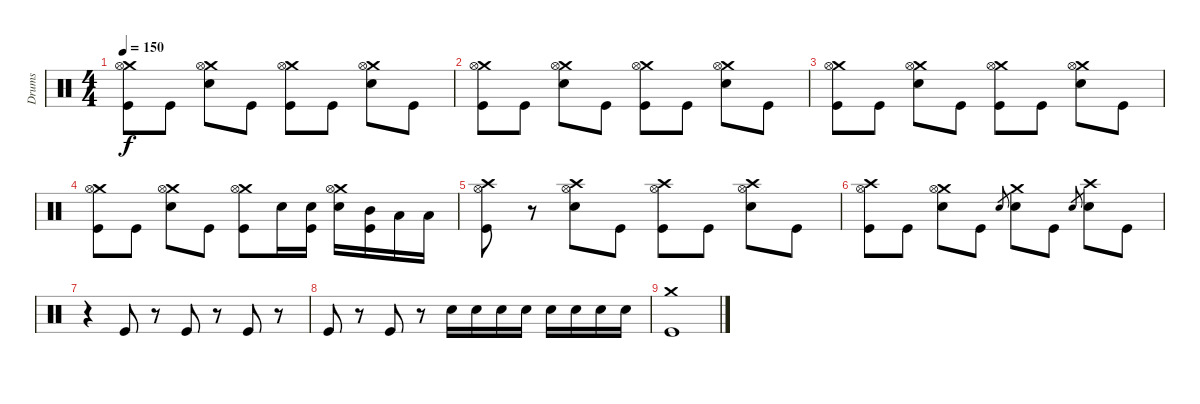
\track ("Drums" "Drums") {instrument percussion}
\staff {score}
\articulation defaults
\ts (4 4)
\tempo 150
\clef neutral
\ks c
("Crash medium (hit)" "Hi-Hat (open)" "Kick (hit)").8{dy f} "Kick (hit)".8 ("Crash medium (hit)" "Hi-Hat (open)" "Snare (hit) 2").8 "Kick (hit)".8 ("Crash medium (hit)" "Hi-Hat (open)" "Kick (hit)").8 "Kick (hit)".8 ("Crash medium (hit)" "Hi-Hat (open)" "Snare (hit) 2").8 "Kick (hit)".8 |
("Crash medium (hit)" "Hi-Hat (open)" "Kick (hit)").8 "Kick (hit)".8 ("Crash medium (hit)" "Hi-Hat (open)" "Snare (hit) 2").8 "Kick (hit)".8 ("Crash medium (hit)" "Hi-Hat (open)" "Kick (hit)").8 "Kick (hit)".8 ("Crash medium (hit)" "Hi-Hat (open)" "Snare (hit) 2").8 "Kick (hit)".8 |
("Crash medium (hit)" "Hi-Hat (open)" "Kick (hit)").8 "Kick (hit)".8 ("Crash medium (hit)" "Hi-Hat (open)" "Snare (hit) 2").8 "Kick (hit)".8 ("Crash medium (hit)" "Hi-Hat (open)" "Kick (hit)").8 "Kick (hit)".8 ("Crash medium (hit)" "Hi-Hat (open)" "Snare (hit) 2").8 "Kick (hit)".8 |
("Crash medium (hit)" "Hi-Hat (open)" "Kick (hit)").8 "Kick (hit)".8 ("Crash medium (hit)" "Hi-Hat (open)" "Snare (hit) 2").8 "Kick (hit)".8 ("Crash medium (hit)" "Hi-Hat (open)" "Kick (hit)").8 "Snare (hit) 2".16 ("Snare (hit) 2" "Kick (hit)").16 ("Crash medium (hit)" "Hi-Hat (open)" "Snare (hit) 2").16 ("Mid Tom (hit)" "Kick (hit)").16 "Low Tom (hit)".16 "Low Tom (hit)".16 |
("Crash high (hit)" "Hi-Hat (open)" "Kick (hit)").8 r.8 ("Crash high (hit)" "Hi-Hat (open)" "Snare (hit) 2").8 "Kick (hit)".8 ("Crash high (hit)" "Hi-Hat (open)" "Kick (hit)").8 "Kick (hit)".8 ("Crash high (hit)" "Hi-Hat (open)" "Snare (hit) 2").8 "Kick (hit)".8 |
("Crash high (hit)" "Hi-Hat (open)" "Kick (hit)").8 "Kick (hit)".8 ("Crash medium (hit)" "Hi-Hat (open)" "Snare (hit) 2").8 "Kick (hit)".8 "Snare (hit) 2".8{gr} ("Crash medium (hit)" "Snare (hit) 2").8 "Kick (hit)".8 "Snare (hit) 2".8{gr} ("Crash high (hit)" "Snare (hit) 2").8 "Kick (hit)".8 |
r.4 "Kick (hit)".8 r.8 "Kick (hit)".8 r.8 "Kick (hit)".8 r.8 |
"Kick (hit)".8 r.8 "Kick (hit)".8 r.8 "Snare (hit) 2".16 "Snare (hit) 2".16 "Snare (hit) 2".16 "Snare (hit) 2".16 "Snare (hit) 2".16 "Snare (hit) 2".16 "Snare (hit) 2".16 "Snare (hit) 2".16 |
("Crash medium (hit)" "Kick (hit)").1
